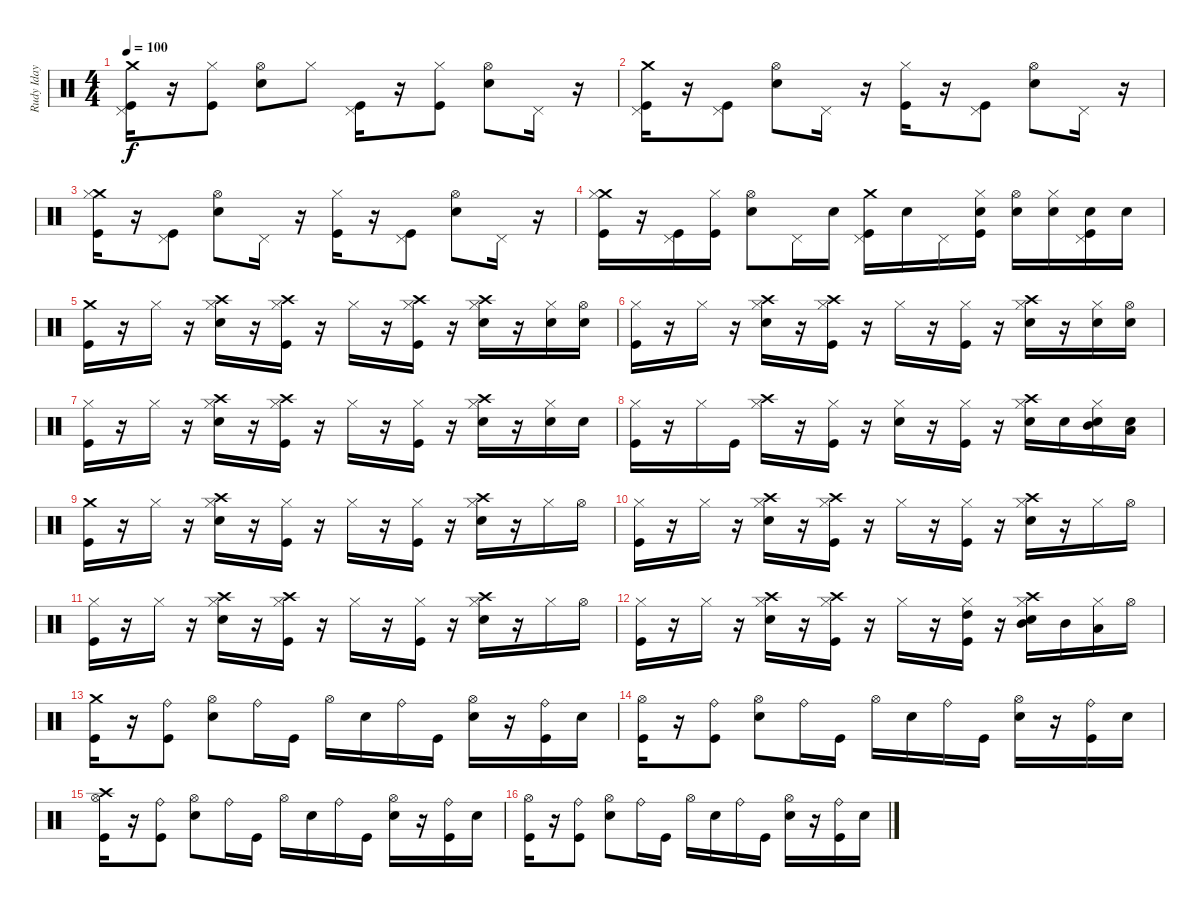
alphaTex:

\track ("Rudy Iday" "Rudy Iday") {instrument percussion}
\staff {score}
\articulation defaults
\ts (4 4)
\tempo 100
\clef neutral
\ks c
("Crash medium (hit)" "Pedal Hi-Hat (hit)" "Kick (hit)").16{dy f} r.16 ("Kick (hit)" "Hi-Hat (closed)").8 ("Electric Snare (hit)" "Hi-Hat (open)").8 "Hi-Hat (closed)".8 ("Pedal Hi-Hat (hit)" "Kick (hit)").16 r.16 ("Hi-Hat (closed)" "Kick (hit)").8 ("Electric Snare (hit)" "Hi-Hat (open)").8 "Pedal Hi-Hat (hit)".16 r.16 |
("Crash medium (hit)" "Pedal Hi-Hat (hit)" "Kick (hit)").16 r.16 ("Pedal Hi-Hat (hit)" "Kick (hit)").8 ("Electric Snare (hit)" "Hi-Hat (open)").8 "Pedal Hi-Hat (hit)".16 r.16 ("Kick (hit)" "Hi-Hat (closed)").16 r.16 ("Kick (hit)" "Pedal Hi-Hat (hit)").8 ("Electric Snare (hit)" "Hi-Hat (open)").8 "Pedal Hi-Hat (hit)".16 r.16 |
("Crash medium (hit)" "Kick (hit)" "Hi-Hat (closed)").16{volume 15} r.16 ("Pedal Hi-Hat (hit)" "Kick (hit)").8{volume 14} ("Electric Snare (hit)" "Hi-Hat (open)").8{volume 14} "Pedal Hi-Hat (hit)".16{volume 13} r.16 ("Hi-Hat (closed)" "Kick (hit)").16{volume 13} r.16 ("Pedal Hi-Hat (hit)" "Kick (hit)").8{volume 13} ("Electric Snare (hit)" "Hi-Hat (open)").8{volume 12} "Pedal Hi-Hat (hit)".16{volume 12} r.16 |
("Crash medium (hit)" "Hi-Hat (closed)" "Kick (hit)").16{volume 15} r.16 ("Pedal Hi-Hat (hit)" "Kick (hit)").16 ("Hi-Hat (closed)" "Kick (hit)").16 ("Electric Snare (hit)" "Hi-Hat (open)").8 "Pedal Hi-Hat (hit)".16 "Electric Snare (hit)".16 ("Crash medium (hit)" "Pedal Hi-Hat (hit)" "Kick (hit)").16 "Electric Snare (hit)".16 "Pedal Hi-Hat (hit)".16 ("Electric Snare (hit)" "Kick (hit)" "Hi-Hat (closed)").16 ("Electric Snare (hit)" "Hi-Hat (open)").16 ("Electric Snare (hit)" "Hi-Hat (closed)").16 ("Electric Snare (hit)" "Pedal Hi-Hat (hit)" "Kick (hit)").16 "Electric Snare (hit)".16 |
("Kick (hit)" "Crash medium (hit)").16 r.16 "Hi-Hat (closed)".16 r.16 ("Crash high (hit)" "Electric Snare (hit)" "Hi-Hat (closed)").16 r.16 ("Crash high (hit)" "Hi-Hat (closed)" "Kick (hit)").16 r.16 "Hi-Hat (closed)".16 r.16 ("Hi-Hat (closed)" "Kick (hit)" "Crash high (hit)").16 r.16 ("Crash high (hit)" "Electric Snare (hit)" "Hi-Hat (closed)").16 r.16 ("Electric Snare (hit)" "Hi-Hat (closed)").16 ("Electric Snare (hit)" "Hi-Hat (open)").16 |
("Kick (hit)" "Hi-Hat (closed)").16 r.16 "Hi-Hat (closed)".16 r.16 ("Crash high (hit)" "Electric Snare (hit)" "Hi-Hat (closed)").16 r.16 ("Crash high (hit)" "Kick (hit)" "Hi-Hat (closed)").16 r.16 "Hi-Hat (closed)".16 r.16 ("Hi-Hat (closed)" "Kick (hit)").16 r.16 ("Crash high (hit)" "Electric Snare (hit)" "Hi-Hat (closed)").16 r.16 ("Hi-Hat (closed)" "Electric Snare (hit)").16 ("Hi-Hat (open)" "Electric Snare (hit)").16 |
("Kick (hit)" "Hi-Hat (closed)").16 r.16 "Hi-Hat (closed)".16 r.16 ("Crash high (hit)" "Electric Snare (hit)" "Hi-Hat (closed)").16 r.16 ("Crash high (hit)" "Kick (hit)" "Hi-Hat (closed)").16 r.16 "Hi-Hat (closed)".16 r.16 ("Kick (hit)" "Hi-Hat (closed)").16 r.16 ("Crash high (hit)" "Electric Snare (hit)" "Hi-Hat (closed)").16 r.16 ("Hi-Hat (closed)" "Electric Snare (hit)").16 "Electric Snare (hit)".16 |
("Kick (hit)" "Hi-Hat (closed)").16 r.16 "Hi-Hat (closed)".16 "Kick (hit)".16 ("Crash high (hit)" "Hi-Hat (closed)").16 r.16 ("Hi-Hat (closed)" "Kick (hit)").16 r.16 ("Electric Snare (hit)" "Hi-Hat (closed)").16 r.16 ("Kick (hit)" "Hi-Hat (closed)").16 r.16 ("Crash high (hit)" "Electric Snare (hit)" "Hi-Hat (closed)").16 "Electric Snare (hit)".16 ("Mid Tom (hit)" "Hi-Hat (closed)" "Electric Snare (hit)").16 ("Low Tom (hit)" "Electric Snare (hit)").16 |
("Kick (hit)" "Crash medium (hit)").16 r.16 "Hi-Hat (closed)".16 r.16 ("Crash high (hit)" "Electric Snare (hit)" "Hi-Hat (closed)").16 r.16 ("Hi-Hat (closed)" "Kick (hit)").16 r.16 "Hi-Hat (closed)".16 r.16 ("Hi-Hat (closed)" "Kick (hit)").16 r.16 ("Crash high (hit)" "Electric Snare (hit)" "Hi-Hat (closed)").16 r.16 "Hi-Hat (closed)".16 "Hi-Hat (open)".16 |
("Kick (hit)" "Hi-Hat (closed)").16 r.16 "Hi-Hat (closed)".16 r.16 ("Crash high (hit)" "Electric Snare (hit)" "Hi-Hat (closed)").16 r.16 ("Crash high (hit)" "Kick (hit)" "Hi-Hat (closed)").16 r.16 "Hi-Hat (closed)".16 r.16 ("Hi-Hat (closed)" "Kick (hit)").16 r.16 ("Crash high (hit)" "Electric Snare (hit)" "Hi-Hat (closed)").16 r.16 "Hi-Hat (closed)".16 "Hi-Hat (open)".16 |
("Kick (hit)" "Hi-Hat (closed)").16 r.16 "Hi-Hat (closed)".16 r.16 ("Crash high (hit)" "Electric Snare (hit)" "Hi-Hat (closed)").16 r.16 ("Crash high (hit)" "Kick (hit)" "Hi-Hat (closed)").16 r.16 "Hi-Hat (closed)".16 r.16 ("Kick (hit)" "Hi-Hat (closed)").16 r.16 ("Crash high (hit)" "Electric Snare (hit)" "Hi-Hat (closed)").16 r.16 "Hi-Hat (closed)".16 "Hi-Hat (open)".16 |
("Kick (hit)" "Hi-Hat (closed)").16 r.16 "Hi-Hat (closed)".16 r.16 ("Crash high (hit)" "Electric Snare (hit)" "Hi-Hat (closed)").16 r.16 ("Crash high (hit)" "Hi-Hat (closed)" "Kick (hit)").16 r.16 "Hi-Hat (closed)".16 r.16 ("Kick (hit)" "Hi-Hat (closed)" "High Tom (hit)").16 r.16 ("Crash high (hit)" "Electric Snare (hit)" "Hi-Hat (closed)" "Mid Tom (hit)").16 "Mid Tom (hit)".16 ("Low Tom (hit)" "Hi-Hat (closed)").16 "Hi-Hat (open)".16 |
("Crash medium (hit)" "Kick (hit)").16 r.16 ("Ride (bell)" "Kick (hit)").8 ("Electric Snare (hit)" "Hi-Hat (open)").8 "Ride (bell)".16 "Kick (hit)".16 "Hi-Hat (open)".16 "Electric Snare (hit)".16 "Ride (bell)".16 "Kick (hit)".16 ("Electric Snare (hit)" "Hi-Hat (open)").16 r.16 ("Ride (bell)" "Kick (hit)").16 "Electric Snare (hit)".16 |
("Kick (hit)" "Hi-Hat (open)").16 r.16 ("Kick (hit)" "Ride (bell)").8 ("Electric Snare (hit)" "Hi-Hat (open)").8 "Ride (bell)".16 "Kick (hit)".16 "Hi-Hat (open)".16 "Electric Snare (hit)".16 "Ride (bell)".16 "Kick (hit)".16 ("Electric Snare (hit)" "Hi-Hat (open)").16 r.16 ("Ride (bell)" "Kick (hit)").16 "Electric Snare (hit)".16 |
("Hi-Hat (open)" "Crash high (hit)" "Kick (hit)").16 r.16 ("Ride (bell)" "Kick (hit)").8 ("Electric Snare (hit)" "Hi-Hat (open)").8 "Ride (bell)".16 "Kick (hit)".16 "Hi-Hat (open)".16 "Electric Snare (hit)".16 "Ride (bell)".16 "Kick (hit)".16 ("Electric Snare (hit)" "Hi-Hat (open)").16 r.16 ("Kick (hit)" "Ride (bell)").16 "Electric Snare (hit)".16 |
("Kick (hit)" "Hi-Hat (open)").16 r.16 ("Ride (bell)" "Kick (hit)").8 ("Electric Snare (hit)" "Hi-Hat (open)").8 "Ride (bell)".16 "Kick (hit)".16 "Hi-Hat (open)".16 "Electric Snare (hit)".16 "Ride (bell)".16 "Kick (hit)".16 ("Electric Snare (hit)" "Hi-Hat (open)").16 r.16 ("Ride (bell)" "Kick (hit)").16 "Electric Snare (hit)".16
